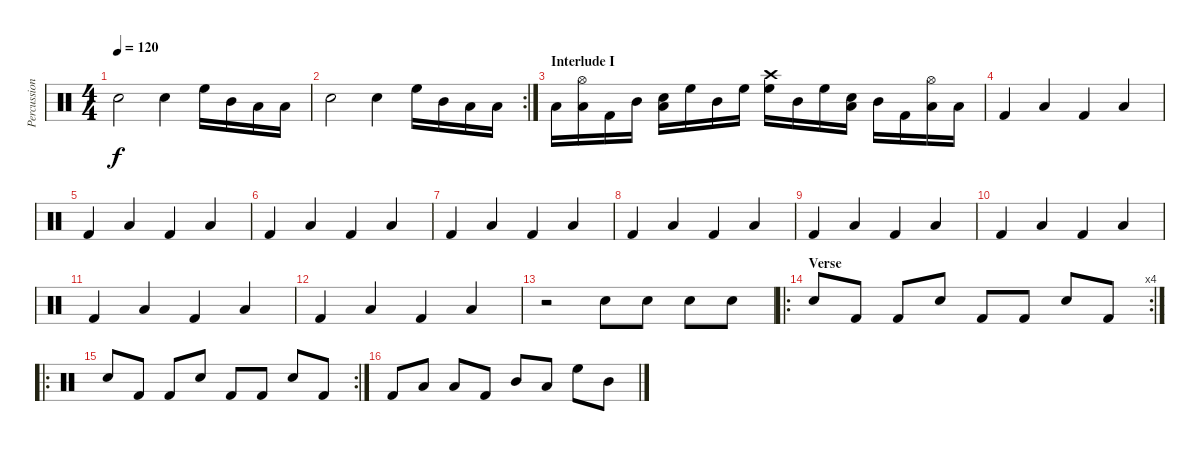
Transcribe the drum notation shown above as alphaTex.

\track ("Percussion" "Percussion") {instrument percussion}
\staff {score}
\articulation defaults
\ts (4 4)
\tempo 120
\clef neutral
\ks c "Snare (hit) 2".2{dy f} "Snare (hit) 2".4 "High Floor Tom (hit)".16 "Mid Tom (hit)".16 "Low Tom (hit)".16 "Low Floor Tom (hit)".16
|
\rc 2 "Snare (hit) 2".2 "Snare (hit) 2".4 "High Floor Tom (hit)".16 "Mid Tom (hit)".16 "Low Tom (hit)".16 "Low Floor Tom (hit)".16
|
\section ("" "Interlude I")
"Low Floor Tom (hit)".16 ("Hi-Hat (open)" "Low Tom (hit)").16 "Kick (hit) 2".16 "Mid Tom (hit)".16 ("Snare (hit) 2" "Low Tom (hit)").16 "High Floor Tom (hit)".16 "Mid Tom (hit)".16 "High Floor Tom (hit)".16 ("Crash high (hit)" "High Floor Tom (hit)").16 "Mid Tom (hit)".16 "High Floor Tom (hit)".16 ("Snare (hit) 2" "Low Tom (hit)").16 "Mid Tom (hit)".16 "Kick (hit) 2".16 ("Hi-Hat (open)" "Low Tom (hit)").16 "Low Floor Tom (hit)".16 |
"Kick (hit) 2".4 "Low Floor Tom (hit)".4 "Kick (hit) 2".4 "Low Floor Tom (hit)".4 |
"Kick (hit) 2".4 "Low Floor Tom (hit)".4 "Kick (hit) 2".4 "Low Floor Tom (hit)".4 |
"Kick (hit) 2".4 "Low Floor Tom (hit)".4 "Kick (hit) 2".4 "Low Floor Tom (hit)".4 |
"Kick (hit) 2".4 "Low Floor Tom (hit)".4 "Kick (hit) 2".4 "Low Floor Tom (hit)".4 |
"Kick (hit) 2".4 "Low Floor Tom (hit)".4 "Kick (hit) 2".4 "Low Floor Tom (hit)".4 |
"Kick (hit) 2".4 "Low Floor Tom (hit)".4 "Kick (hit) 2".4 "Low Floor Tom (hit)".4 |
"Kick (hit) 2".4 "Low Floor Tom (hit)".4 "Kick (hit) 2".4 "Low Floor Tom (hit)".4 |
"Kick (hit) 2".4 "Low Floor Tom (hit)".4 "Kick (hit) 2".4 "Low Floor Tom (hit)".4 |
"Kick (hit) 2".4 "Low Floor Tom (hit)".4 "Kick (hit) 2".4 "Low Floor Tom (hit)".4 |
r.2 "Snare (hit) 2".8 "Snare (hit) 2".8 "Snare (hit) 2".8 "Snare (hit) 2".8 |
\ro
\rc 4
\section ("" "Verse")
"Snare (hit) 2".8 "Kick (hit) 2".8 "Kick (hit) 2".8 "Snare (hit) 2".8 "Kick (hit) 2".8 "Kick (hit) 2".8 "Snare (hit) 2".8 "Kick (hit) 2".8 |
\ro
\rc 2 "Snare (hit) 2".8 "Kick (hit) 2".8 "Kick (hit) 2".8 "Snare (hit) 2".8 "Kick (hit) 2".8 "Kick (hit) 2".8 "Snare (hit) 2".8 "Kick (hit) 2".8
|
"Kick (hit) 2".8 "Low Floor Tom (hit)".8 "Low Tom (hit)".8 "Kick (hit) 2".8 "Mid Tom (hit)".8 "Low Tom (hit)".8 "High Floor Tom (hit)".8 "Mid Tom (hit)".8
